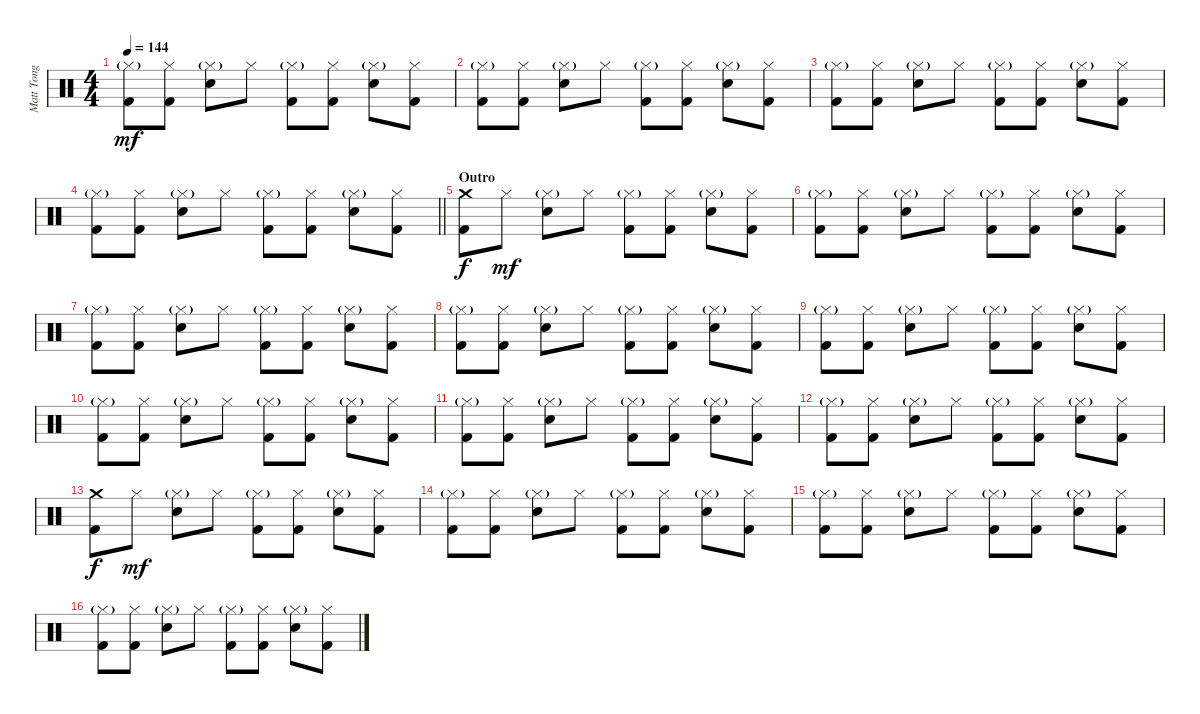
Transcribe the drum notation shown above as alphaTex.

\track ("Matt Tong" "Matt Tong") {instrument percussion}
\staff {score}
\articulation defaults
\ts (4 4)
\tempo 144
\clef neutral
\ks c
("Hi-Hat (closed)"{g} "Kick (hit) 2").8{dy mf} ("Hi-Hat (closed)" "Kick (hit) 2").8 ("Hi-Hat (closed)"{g} "Electric Snare (hit)").8 "Hi-Hat (closed)".8 ("Hi-Hat (closed)"{g} "Kick (hit) 2").8 ("Hi-Hat (closed)" "Kick (hit) 2").8 ("Hi-Hat (closed)"{g} "Electric Snare (hit)").8 ("Hi-Hat (closed)" "Kick (hit) 2").8 |
("Hi-Hat (closed)"{g} "Kick (hit) 2").8 ("Hi-Hat (closed)" "Kick (hit) 2").8 ("Hi-Hat (closed)"{g} "Electric Snare (hit)").8 "Hi-Hat (closed)".8 ("Hi-Hat (closed)"{g} "Kick (hit) 2").8 ("Hi-Hat (closed)" "Kick (hit) 2").8 ("Hi-Hat (closed)"{g} "Electric Snare (hit)").8 ("Hi-Hat (closed)" "Kick (hit) 2").8 |
("Hi-Hat (closed)"{g} "Kick (hit) 2").8 ("Hi-Hat (closed)" "Kick (hit) 2").8 ("Hi-Hat (closed)"{g} "Electric Snare (hit)").8 "Hi-Hat (closed)".8 ("Hi-Hat (closed)"{g} "Kick (hit) 2").8 ("Hi-Hat (closed)" "Kick (hit) 2").8 ("Hi-Hat (closed)"{g} "Electric Snare (hit)").8 ("Hi-Hat (closed)" "Kick (hit) 2").8 |
\barLineRight lightlight
("Hi-Hat (closed)"{g} "Kick (hit) 2").8 ("Hi-Hat (closed)" "Kick (hit) 2").8 ("Hi-Hat (closed)"{g} "Electric Snare (hit)").8 "Hi-Hat (closed)".8 ("Hi-Hat (closed)"{g} "Kick (hit) 2").8 ("Hi-Hat (closed)" "Kick (hit) 2").8 ("Hi-Hat (closed)"{g} "Electric Snare (hit)").8 ("Hi-Hat (closed)" "Kick (hit) 2").8 |
\section ("" "Outro")
("Crash medium (hit)" "Kick (hit) 2").8{dy f} "Hi-Hat (closed)".8{dy mf} ("Hi-Hat (closed)"{g} "Electric Snare (hit)").8 "Hi-Hat (closed)".8 ("Hi-Hat (closed)"{g} "Kick (hit) 2").8 ("Hi-Hat (closed)" "Kick (hit) 2").8 ("Hi-Hat (closed)"{g} "Electric Snare (hit)").8 ("Hi-Hat (closed)" "Kick (hit) 2").8 |
("Hi-Hat (closed)"{g} "Kick (hit) 2").8 ("Hi-Hat (closed)" "Kick (hit) 2").8 ("Hi-Hat (closed)"{g} "Electric Snare (hit)").8 "Hi-Hat (closed)".8 ("Hi-Hat (closed)"{g} "Kick (hit) 2").8 ("Hi-Hat (closed)" "Kick (hit) 2").8 ("Hi-Hat (closed)"{g} "Electric Snare (hit)").8 ("Hi-Hat (closed)" "Kick (hit) 2").8 |
("Hi-Hat (closed)"{g} "Kick (hit) 2").8 ("Hi-Hat (closed)" "Kick (hit) 2").8 ("Hi-Hat (closed)"{g} "Electric Snare (hit)").8 "Hi-Hat (closed)".8 ("Hi-Hat (closed)"{g} "Kick (hit) 2").8 ("Hi-Hat (closed)" "Kick (hit) 2").8 ("Hi-Hat (closed)"{g} "Electric Snare (hit)").8 ("Hi-Hat (closed)" "Kick (hit) 2").8 |
("Hi-Hat (closed)"{g} "Kick (hit) 2").8 ("Hi-Hat (closed)" "Kick (hit) 2").8 ("Hi-Hat (closed)"{g} "Electric Snare (hit)").8 "Hi-Hat (closed)".8 ("Hi-Hat (closed)"{g} "Kick (hit) 2").8 ("Hi-Hat (closed)" "Kick (hit) 2").8 ("Hi-Hat (closed)"{g} "Electric Snare (hit)").8 ("Hi-Hat (closed)" "Kick (hit) 2").8 |
("Hi-Hat (closed)"{g} "Kick (hit) 2").8 ("Hi-Hat (closed)" "Kick (hit) 2").8 ("Hi-Hat (closed)"{g} "Electric Snare (hit)").8 "Hi-Hat (closed)".8 ("Hi-Hat (closed)"{g} "Kick (hit) 2").8 ("Hi-Hat (closed)" "Kick (hit) 2").8 ("Hi-Hat (closed)"{g} "Electric Snare (hit)").8 ("Hi-Hat (closed)" "Kick (hit) 2").8 |
("Hi-Hat (closed)"{g} "Kick (hit) 2").8 ("Hi-Hat (closed)" "Kick (hit) 2").8 ("Hi-Hat (closed)"{g} "Electric Snare (hit)").8 "Hi-Hat (closed)".8 ("Hi-Hat (closed)"{g} "Kick (hit) 2").8 ("Hi-Hat (closed)" "Kick (hit) 2").8 ("Hi-Hat (closed)"{g} "Electric Snare (hit)").8 ("Hi-Hat (closed)" "Kick (hit) 2").8 |
("Hi-Hat (closed)"{g} "Kick (hit) 2").8 ("Hi-Hat (closed)" "Kick (hit) 2").8 ("Hi-Hat (closed)"{g} "Electric Snare (hit)").8 "Hi-Hat (closed)".8 ("Hi-Hat (closed)"{g} "Kick (hit) 2").8 ("Hi-Hat (closed)" "Kick (hit) 2").8 ("Hi-Hat (closed)"{g} "Electric Snare (hit)").8 ("Hi-Hat (closed)" "Kick (hit) 2").8 |
("Hi-Hat (closed)"{g} "Kick (hit) 2").8 ("Hi-Hat (closed)" "Kick (hit) 2").8 ("Hi-Hat (closed)"{g} "Electric Snare (hit)").8 "Hi-Hat (closed)".8 ("Hi-Hat (closed)"{g} "Kick (hit) 2").8 ("Hi-Hat (closed)" "Kick (hit) 2").8 ("Hi-Hat (closed)"{g} "Electric Snare (hit)").8 ("Hi-Hat (closed)" "Kick (hit) 2").8 |
("Crash medium (hit)" "Kick (hit) 2").8{dy f} "Hi-Hat (closed)".8{dy mf} ("Hi-Hat (closed)"{g} "Electric Snare (hit)").8 "Hi-Hat (closed)".8 ("Hi-Hat (closed)"{g} "Kick (hit) 2").8 ("Hi-Hat (closed)" "Kick (hit) 2").8 ("Hi-Hat (closed)"{g} "Electric Snare (hit)").8 ("Hi-Hat (closed)" "Kick (hit) 2").8 |
("Hi-Hat (closed)"{g} "Kick (hit) 2").8 ("Hi-Hat (closed)" "Kick (hit) 2").8 ("Hi-Hat (closed)"{g} "Electric Snare (hit)").8 "Hi-Hat (closed)".8 ("Hi-Hat (closed)"{g} "Kick (hit) 2").8 ("Hi-Hat (closed)" "Kick (hit) 2").8 ("Hi-Hat (closed)"{g} "Electric Snare (hit)").8 ("Hi-Hat (closed)" "Kick (hit) 2").8 |
("Hi-Hat (closed)"{g} "Kick (hit) 2").8 ("Hi-Hat (closed)" "Kick (hit) 2").8 ("Hi-Hat (closed)"{g} "Electric Snare (hit)").8 "Hi-Hat (closed)".8 ("Hi-Hat (closed)"{g} "Kick (hit) 2").8 ("Hi-Hat (closed)" "Kick (hit) 2").8 ("Hi-Hat (closed)"{g} "Electric Snare (hit)").8 ("Hi-Hat (closed)" "Kick (hit) 2").8 |
("Hi-Hat (closed)"{g} "Kick (hit) 2").8 ("Hi-Hat (closed)" "Kick (hit) 2").8 ("Hi-Hat (closed)"{g} "Electric Snare (hit)").8 "Hi-Hat (closed)".8 ("Hi-Hat (closed)"{g} "Kick (hit) 2").8 ("Hi-Hat (closed)" "Kick (hit) 2").8 ("Hi-Hat (closed)"{g} "Electric Snare (hit)").8 ("Hi-Hat (closed)" "Kick (hit) 2").8
